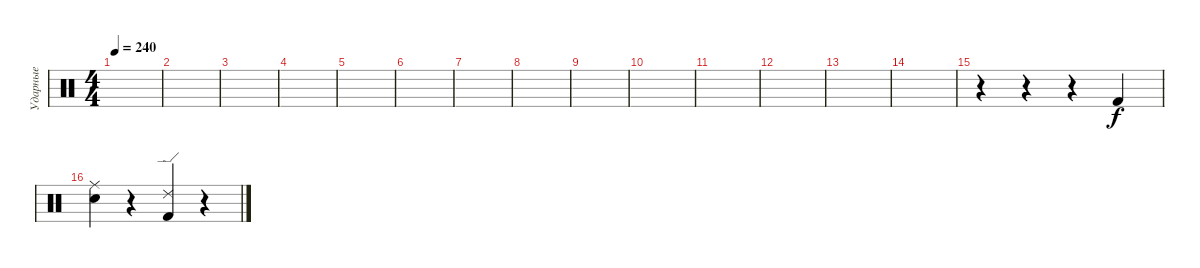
\track ("Ударные" "Ударные") {instrument percussion}
\staff {score}
\articulation defaults
\ts (4 4)
\tempo 240
\clef neutral
\ks c
|
|
|
|
|
|
|
|
|
|
|
|
|
|
r.4 r.4 r.4 "Kick (hit) 2".4 |
("Ride (middle)" "Snare (hit) 2").4 r.4 ("Ride (edge) 2" "Kick (hit) 2").4 r.4
